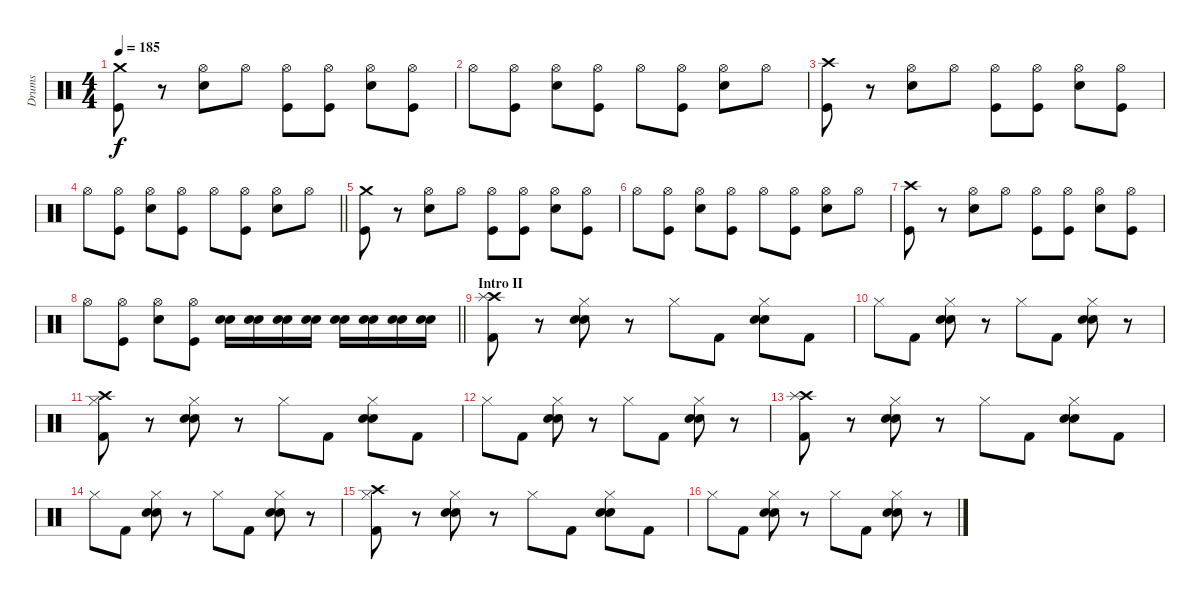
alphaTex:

\track ("Drums" "Drums") {instrument percussion}
\staff {score}
\articulation defaults
\ts (4 4)
\tempo 185
\clef neutral
\ks c
("Crash medium (hit)" "Kick (hit)").8{dy f} r.8 ("Hi-Hat (open)" "Electric Snare (hit)").8 "Hi-Hat (open)".8 ("Hi-Hat (open)" "Kick (hit)").8 ("Hi-Hat (open)" "Kick (hit)").8 ("Hi-Hat (open)" "Electric Snare (hit)").8 ("Hi-Hat (open)" "Kick (hit)").8 |
"Hi-Hat (open)".8 ("Hi-Hat (open)" "Kick (hit)").8 ("Hi-Hat (open)" "Electric Snare (hit)").8 ("Hi-Hat (open)" "Kick (hit)").8 "Hi-Hat (open)".8 ("Hi-Hat (open)" "Kick (hit)").8 ("Hi-Hat (open)" "Electric Snare (hit)").8 "Hi-Hat (open)".8 |
("Crash high (hit)" "Kick (hit)").8 r.8 ("Hi-Hat (open)" "Electric Snare (hit)").8 "Hi-Hat (open)".8 ("Hi-Hat (open)" "Kick (hit)").8 ("Hi-Hat (open)" "Kick (hit)").8 ("Hi-Hat (open)" "Electric Snare (hit)").8 ("Hi-Hat (open)" "Kick (hit)").8 |
\barLineRight lightlight "Hi-Hat (open)".8
("Hi-Hat (open)" "Kick (hit)").8 ("Hi-Hat (open)" "Electric Snare (hit)").8 ("Hi-Hat (open)" "Kick (hit)").8 "Hi-Hat (open)".8 ("Hi-Hat (open)" "Kick (hit)").8 ("Hi-Hat (open)" "Electric Snare (hit)").8 "Hi-Hat (open)".8 |
("Crash medium (hit)" "Kick (hit)").8 r.8 ("Hi-Hat (open)" "Electric Snare (hit)").8 "Hi-Hat (open)".8 ("Hi-Hat (open)" "Kick (hit)").8 ("Hi-Hat (open)" "Kick (hit)").8 ("Hi-Hat (open)" "Electric Snare (hit)").8 ("Hi-Hat (open)" "Kick (hit)").8 |
"Hi-Hat (open)".8 ("Hi-Hat (open)" "Kick (hit)").8 ("Hi-Hat (open)" "Electric Snare (hit)").8 ("Hi-Hat (open)" "Kick (hit)").8 "Hi-Hat (open)".8 ("Hi-Hat (open)" "Kick (hit)").8 ("Hi-Hat (open)" "Electric Snare (hit)").8 "Hi-Hat (open)".8 |
("Crash high (hit)" "Kick (hit)").8 r.8 ("Hi-Hat (open)" "Electric Snare (hit)").8 "Hi-Hat (open)".8 ("Hi-Hat (open)" "Kick (hit)").8 ("Hi-Hat (open)" "Kick (hit)").8 ("Hi-Hat (open)" "Electric Snare (hit)").8 ("Hi-Hat (open)" "Kick (hit)").8 |
\barLineRight lightlight "Hi-Hat (open)".8
("Hi-Hat (open)" "Kick (hit)").8 ("Hi-Hat (open)" "Electric Snare (hit)").8 ("Hi-Hat (open)" "Kick (hit)").8 ("Snare (hit) 2" "Electric Snare (hit)").16 ("Snare (hit) 2" "Electric Snare (hit)").16 ("Snare (hit) 2" "Electric Snare (hit)").16 ("Snare (hit) 2" "Electric Snare (hit)").16 ("Snare (hit) 2" "Electric Snare (hit)").16 ("Snare (hit) 2" "Electric Snare (hit)").16 ("Snare (hit) 2" "Electric Snare (hit)").16 ("Snare (hit) 2" "Electric Snare (hit)").16 |
\section ("" "Intro II")
("Crash high (hit)" "Kick (hit) 2" "Splash (hit)").8 r.8 ("Hi-Hat (closed)" "Snare (hit) 2" "Electric Snare (hit)").8 r.8 "Hi-Hat (closed)".8 "Kick (hit) 2".8 ("Hi-Hat (closed)" "Snare (hit) 2" "Electric Snare (hit)").8 "Kick (hit) 2".8 |
"Hi-Hat (closed)".8 "Kick (hit) 2".8 ("Hi-Hat (closed)" "Snare (hit) 2" "Electric Snare (hit)").8 r.8 "Hi-Hat (closed)".8 "Kick (hit) 2".8 ("Hi-Hat (closed)" "Snare (hit) 2" "Electric Snare (hit)").8 r.8 |
("Hi-Hat (closed)" "Kick (hit) 2" "Crash high (hit)").8 r.8 ("Hi-Hat (closed)" "Snare (hit) 2" "Electric Snare (hit)").8 r.8 "Hi-Hat (closed)".8 "Kick (hit) 2".8 ("Hi-Hat (closed)" "Snare (hit) 2" "Electric Snare (hit)").8 "Kick (hit) 2".8 |
"Hi-Hat (closed)".8 "Kick (hit) 2".8 ("Hi-Hat (closed)" "Snare (hit) 2" "Electric Snare (hit)").8 r.8 "Hi-Hat (closed)".8 "Kick (hit) 2".8 ("Hi-Hat (closed)" "Snare (hit) 2" "Electric Snare (hit)").8 r.8 |
("Crash high (hit)" "Kick (hit) 2" "Splash (hit)").8 r.8 ("Hi-Hat (closed)" "Snare (hit) 2" "Electric Snare (hit)").8 r.8 "Hi-Hat (closed)".8 "Kick (hit) 2".8 ("Hi-Hat (closed)" "Snare (hit) 2" "Electric Snare (hit)").8 "Kick (hit) 2".8 |
"Hi-Hat (closed)".8 "Kick (hit) 2".8 ("Hi-Hat (closed)" "Snare (hit) 2" "Electric Snare (hit)").8 r.8 "Hi-Hat (closed)".8 "Kick (hit) 2".8 ("Hi-Hat (closed)" "Snare (hit) 2" "Electric Snare (hit)").8 r.8 |
("Hi-Hat (closed)" "Kick (hit) 2" "Crash high (hit)").8 r.8 ("Hi-Hat (closed)" "Snare (hit) 2" "Electric Snare (hit)").8 r.8 "Hi-Hat (closed)".8 "Kick (hit) 2".8 ("Hi-Hat (closed)" "Snare (hit) 2" "Electric Snare (hit)").8 "Kick (hit) 2".8 |
"Hi-Hat (closed)".8 "Kick (hit) 2".8 ("Hi-Hat (closed)" "Snare (hit) 2" "Electric Snare (hit)").8 r.8 "Hi-Hat (closed)".8 "Kick (hit) 2".8 ("Hi-Hat (closed)" "Snare (hit) 2" "Electric Snare (hit)").8 r.8
